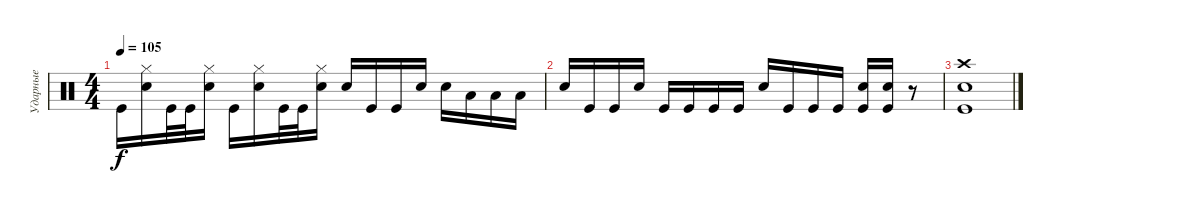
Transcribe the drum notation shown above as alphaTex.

\track ("Ударные" "Ударные") {instrument percussion}
\staff {score}
\articulation defaults
\ts (4 4)
\tempo 105
\clef neutral
\ks c "Kick (hit)".16{dy f}
("Hi-Hat (closed)" "Snare (hit) 2").16 "Kick (hit)".32 "Kick (hit)".32 ("Hi-Hat (closed)" "Snare (hit) 2").16 "Kick (hit)".16 ("Hi-Hat (closed)" "Snare (hit) 2").16 "Kick (hit)".32 "Kick (hit)".32 ("Hi-Hat (closed)" "Snare (hit) 2").16 "Snare (hit) 2".16 "Kick (hit)".16 "Kick (hit)".16 "Snare (hit) 2".16 "Snare (hit) 2".16 "Low Floor Tom (hit)".16 "Low Floor Tom (hit)".16 "Low Floor Tom (hit)".16 |
"Snare (hit) 2".16 "Kick (hit)".16 "Kick (hit)".16 "Snare (hit) 2".16 "Kick (hit)".16 "Kick (hit)".16 "Kick (hit)".16 "Kick (hit)".16 "Snare (hit) 2".16 "Kick (hit)".16 "Kick (hit)".16 "Kick (hit)".16 ("Kick (hit)" "Snare (hit) 2").16 ("Kick (hit)" "Snare (hit) 2").16 r.8 |
("Kick (hit)" "Snare (hit) 2" "Crash high (hit)").1
